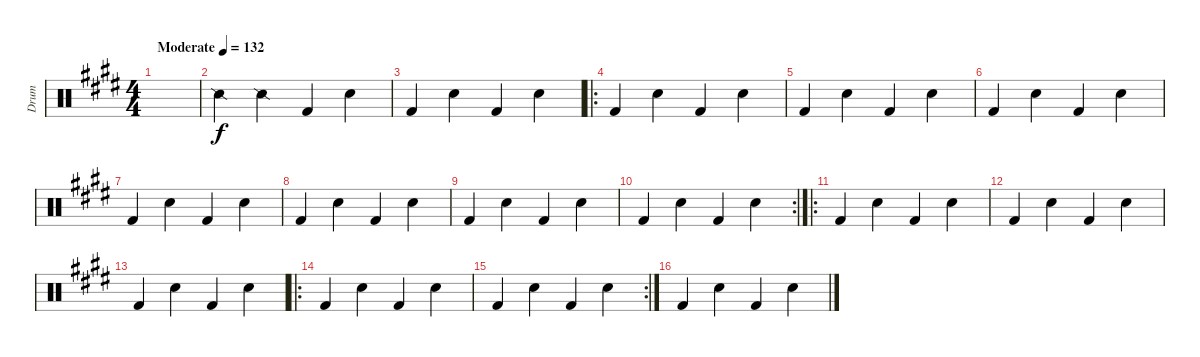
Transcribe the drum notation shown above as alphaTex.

\track ("Drum" "Drum") {instrument percussion}
\staff {score}
\articulation defaults
\ts (4 4)
\tempo (132 "Moderate")
\clef neutral
\ks e
|
"Snare (side stick) 2".4 "Snare (side stick) 2".4 "Kick (hit) 2".4 "Snare (hit) 2".4 |
"Kick (hit) 2".4 "Snare (hit) 2".4 "Kick (hit) 2".4 "Snare (hit) 2".4 |
\ro "Kick (hit) 2".4 "Snare (hit) 2".4 "Kick (hit) 2".4 "Snare (hit) 2".4
|
"Kick (hit) 2".4 "Snare (hit) 2".4 "Kick (hit) 2".4 "Snare (hit) 2".4 |
"Kick (hit) 2".4 "Snare (hit) 2".4 "Kick (hit) 2".4 "Snare (hit) 2".4 |
"Kick (hit) 2".4 "Snare (hit) 2".4 "Kick (hit) 2".4 "Snare (hit) 2".4 |
"Kick (hit) 2".4 "Snare (hit) 2".4 "Kick (hit) 2".4 "Snare (hit) 2".4 |
"Kick (hit) 2".4 "Snare (hit) 2".4 "Kick (hit) 2".4 "Snare (hit) 2".4 |
\rc 2 "Kick (hit) 2".4 "Snare (hit) 2".4 "Kick (hit) 2".4 "Snare (hit) 2".4
|
\ro "Kick (hit) 2".4 "Snare (hit) 2".4 "Kick (hit) 2".4 "Snare (hit) 2".4
|
"Kick (hit) 2".4 "Snare (hit) 2".4 "Kick (hit) 2".4 "Snare (hit) 2".4 |
"Kick (hit) 2".4 "Snare (hit) 2".4 "Kick (hit) 2".4 "Snare (hit) 2".4 |
\ro "Kick (hit) 2".4 "Snare (hit) 2".4 "Kick (hit) 2".4 "Snare (hit) 2".4
|
\rc 2 "Kick (hit) 2".4 "Snare (hit) 2".4 "Kick (hit) 2".4 "Snare (hit) 2".4
|
"Kick (hit) 2".4 "Snare (hit) 2".4 "Kick (hit) 2".4 "Snare (hit) 2".4
